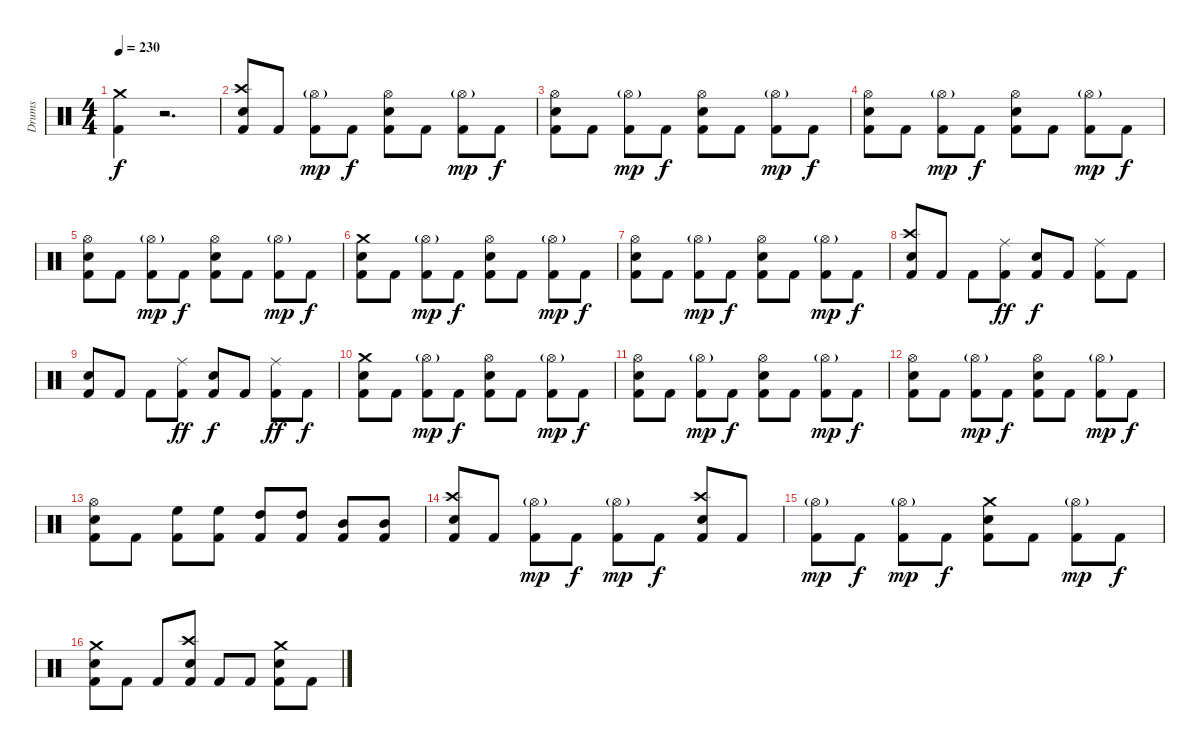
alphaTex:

\track ("Drums" "Drums") {instrument percussion}
\staff {score}
\articulation defaults
\ts (4 4)
\tempo 230
\clef neutral
\ks c
("Crash medium (hit)" "Kick (hit) 2").4{dy f} r.2{d volume 0} |
("Crash high (hit)" "Electric Snare (hit)" "Kick (hit) 2").8{volume 16} "Kick (hit) 2".8 ("Hi-Hat (open)"{g} "Kick (hit) 2").8{dy mp} "Kick (hit) 2".8{dy f} ("Hi-Hat (open)" "Electric Snare (hit)" "Kick (hit) 2").8 "Kick (hit) 2".8 ("Hi-Hat (open)"{g} "Kick (hit) 2").8{dy mp} "Kick (hit) 2".8{dy f} |
("Hi-Hat (open)" "Electric Snare (hit)" "Kick (hit) 2").8 "Kick (hit) 2".8 ("Hi-Hat (open)"{g} "Kick (hit) 2").8{dy mp} "Kick (hit) 2".8{dy f} ("Hi-Hat (open)" "Electric Snare (hit)" "Kick (hit) 2").8 "Kick (hit) 2".8 ("Hi-Hat (open)"{g} "Kick (hit) 2").8{dy mp} "Kick (hit) 2".8{dy f} |
("Hi-Hat (open)" "Electric Snare (hit)" "Kick (hit) 2").8 "Kick (hit) 2".8 ("Hi-Hat (open)"{g} "Kick (hit) 2").8{dy mp} "Kick (hit) 2".8{dy f} ("Hi-Hat (open)" "Electric Snare (hit)" "Kick (hit) 2").8 "Kick (hit) 2".8 ("Hi-Hat (open)"{g} "Kick (hit) 2").8{dy mp} "Kick (hit) 2".8{dy f} |
("Hi-Hat (open)" "Electric Snare (hit)" "Kick (hit) 2").8 "Kick (hit) 2".8 ("Hi-Hat (open)"{g} "Kick (hit) 2").8{dy mp} "Kick (hit) 2".8{dy f} ("Hi-Hat (open)" "Electric Snare (hit)" "Kick (hit) 2").8 "Kick (hit) 2".8 ("Hi-Hat (open)"{g} "Kick (hit) 2").8{dy mp} "Kick (hit) 2".8{dy f} |
("Crash medium (hit)" "Electric Snare (hit)" "Kick (hit) 2").8 "Kick (hit) 2".8 ("Hi-Hat (open)"{g} "Kick (hit) 2").8{dy mp} "Kick (hit) 2".8{dy f} ("Hi-Hat (open)" "Electric Snare (hit)" "Kick (hit) 2").8 "Kick (hit) 2".8 ("Hi-Hat (open)"{g} "Kick (hit) 2").8{dy mp} "Kick (hit) 2".8{dy f} |
("Hi-Hat (open)" "Electric Snare (hit)" "Kick (hit) 2").8 "Kick (hit) 2".8 ("Hi-Hat (open)"{g} "Kick (hit) 2").8{dy mp} "Kick (hit) 2".8{dy f} ("Hi-Hat (open)" "Electric Snare (hit)" "Kick (hit) 2").8 "Kick (hit) 2".8 ("Hi-Hat (open)"{g} "Kick (hit) 2").8{dy mp} "Kick (hit) 2".8{dy f} |
("Crash high (hit)" "Electric Snare (hit)" "Kick (hit) 2").8 "Kick (hit) 2".8 "Kick (hit) 2".8 ("Ride (middle)" "Kick (hit) 2").8{dy ff} ("Electric Snare (hit)" "Kick (hit) 2").8{dy f} "Kick (hit) 2".8 ("Ride (middle)" "Kick (hit) 2").8 "Kick (hit) 2".8 |
("Electric Snare (hit)" "Kick (hit) 2").8 "Kick (hit) 2".8 "Kick (hit) 2".8 ("Ride (middle)" "Kick (hit) 2").8{dy ff} ("Electric Snare (hit)" "Kick (hit) 2").8{dy f} "Kick (hit) 2".8 ("Ride (middle)" "Kick (hit) 2").8{dy ff} "Kick (hit) 2".8{dy f} |
("Crash medium (hit)" "Electric Snare (hit)" "Kick (hit) 2").8 "Kick (hit) 2".8 ("Hi-Hat (open)"{g} "Kick (hit) 2").8{dy mp} "Kick (hit) 2".8{dy f} ("Hi-Hat (open)" "Electric Snare (hit)" "Kick (hit) 2").8 "Kick (hit) 2".8 ("Hi-Hat (open)"{g} "Kick (hit) 2").8{dy mp} "Kick (hit) 2".8{dy f} |
("Hi-Hat (open)" "Electric Snare (hit)" "Kick (hit) 2").8 "Kick (hit) 2".8 ("Hi-Hat (open)"{g} "Kick (hit) 2").8{dy mp} "Kick (hit) 2".8{dy f} ("Hi-Hat (open)" "Electric Snare (hit)" "Kick (hit) 2").8 "Kick (hit) 2".8 ("Hi-Hat (open)"{g} "Kick (hit) 2").8{dy mp} "Kick (hit) 2".8{dy f} |
("Hi-Hat (open)" "Electric Snare (hit)" "Kick (hit) 2").8 "Kick (hit) 2".8 ("Hi-Hat (open)"{g} "Kick (hit) 2").8{dy mp} "Kick (hit) 2".8{dy f} ("Hi-Hat (open)" "Electric Snare (hit)" "Kick (hit) 2").8 "Kick (hit) 2".8 ("Hi-Hat (open)"{g} "Kick (hit) 2").8{dy mp} "Kick (hit) 2".8{dy f} |
("Hi-Hat (open)" "Electric Snare (hit)" "Kick (hit) 2").8 "Kick (hit) 2".8 ("High Floor Tom (hit)" "Kick (hit) 2").8 ("High Floor Tom (hit)" "Kick (hit) 2").8 ("High Tom (hit)" "Kick (hit) 2").8 ("High Tom (hit)" "Kick (hit) 2").8 ("Mid Tom (hit)" "Kick (hit) 2").8 ("Mid Tom (hit)" "Kick (hit) 2").8 |
("Crash high (hit)" "Electric Snare (hit)" "Kick (hit) 2").8 "Kick (hit) 2".8 ("Hi-Hat (open)"{g} "Kick (hit) 2").8{dy mp} "Kick (hit) 2".8{dy f} ("Hi-Hat (open)"{g} "Kick (hit) 2").8{dy mp} "Kick (hit) 2".8{dy f} ("Crash high (hit)" "Electric Snare (hit)" "Kick (hit) 2").8 "Kick (hit) 2".8 |
("Hi-Hat (open)"{g} "Kick (hit) 2").8{dy mp} "Kick (hit) 2".8{dy f} ("Hi-Hat (open)"{g} "Kick (hit) 2").8{dy mp} "Kick (hit) 2".8{dy f} ("Crash medium (hit)" "Electric Snare (hit)" "Kick (hit) 2").8 "Kick (hit) 2".8 ("Hi-Hat (open)"{g} "Kick (hit) 2").8{dy mp} "Kick (hit) 2".8{dy f} |
("Crash medium (hit)" "Electric Snare (hit)" "Kick (hit) 2").8 "Kick (hit) 2".8 "Kick (hit) 2".8 ("Crash high (hit)" "Electric Snare (hit)" "Kick (hit) 2").8 "Kick (hit) 2".8 "Kick (hit) 2".8 ("Crash medium (hit)" "Electric Snare (hit)" "Kick (hit) 2").8 "Kick (hit) 2".8
